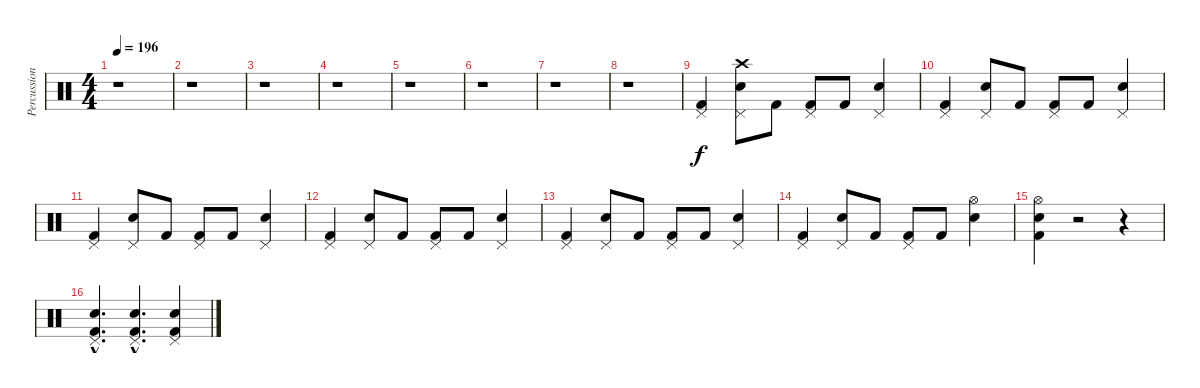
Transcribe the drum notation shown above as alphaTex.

\track ("Percussion" "Percussion") {instrument percussion}
\staff {score}
\articulation defaults
\ts (4 4)
\tempo 196
\clef neutral
\ks c
r.1{dy f} |
r.1 |
r.1 |
r.1 |
r.1 |
r.1 |
r.1 |
r.1 |
("Pedal Hi-Hat (hit)" "Kick (hit) 2").4 ("Electric Snare (hit)" "Pedal Hi-Hat (hit)" "Crash high (hit)").8 "Kick (hit) 2".8 ("Pedal Hi-Hat (hit)" "Kick (hit) 2").8 "Kick (hit) 2".8 ("Electric Snare (hit)" "Pedal Hi-Hat (hit)").4 |
("Pedal Hi-Hat (hit)" "Kick (hit) 2").4 ("Electric Snare (hit)" "Pedal Hi-Hat (hit)").8 "Kick (hit) 2".8 ("Pedal Hi-Hat (hit)" "Kick (hit) 2").8 "Kick (hit) 2".8 ("Electric Snare (hit)" "Pedal Hi-Hat (hit)").4 |
("Pedal Hi-Hat (hit)" "Kick (hit) 2").4 ("Electric Snare (hit)" "Pedal Hi-Hat (hit)").8 "Kick (hit) 2".8 ("Pedal Hi-Hat (hit)" "Kick (hit) 2").8 "Kick (hit) 2".8 ("Electric Snare (hit)" "Pedal Hi-Hat (hit)").4 |
("Pedal Hi-Hat (hit)" "Kick (hit) 2").4 ("Electric Snare (hit)" "Pedal Hi-Hat (hit)").8 "Kick (hit) 2".8 ("Pedal Hi-Hat (hit)" "Kick (hit) 2").8 "Kick (hit) 2".8 ("Electric Snare (hit)" "Pedal Hi-Hat (hit)").4 |
("Pedal Hi-Hat (hit)" "Kick (hit) 2").4 ("Electric Snare (hit)" "Pedal Hi-Hat (hit)").8 "Kick (hit) 2".8 ("Pedal Hi-Hat (hit)" "Kick (hit) 2").8 "Kick (hit) 2".8 ("Electric Snare (hit)" "Pedal Hi-Hat (hit)").4 |
("Pedal Hi-Hat (hit)" "Kick (hit) 2").4 ("Electric Snare (hit)" "Pedal Hi-Hat (hit)").8 "Kick (hit) 2".8 ("Pedal Hi-Hat (hit)" "Kick (hit) 2").8 "Kick (hit) 2".8 ("Electric Snare (hit)" "Hi-Hat (open)").4 |
("Electric Snare (hit)" "Hi-Hat (open)" "Kick (hit) 2").4 r.2 r.4 |
("Electric Snare (hit)"{hac} "Pedal Hi-Hat (hit)"{hac} "Kick (hit) 2"{hac}).4{d} ("Electric Snare (hit)"{hac} "Pedal Hi-Hat (hit)"{hac} "Kick (hit) 2"{hac}).4{d} ("Electric Snare (hit)" "Pedal Hi-Hat (hit)" "Kick (hit) 2").4
